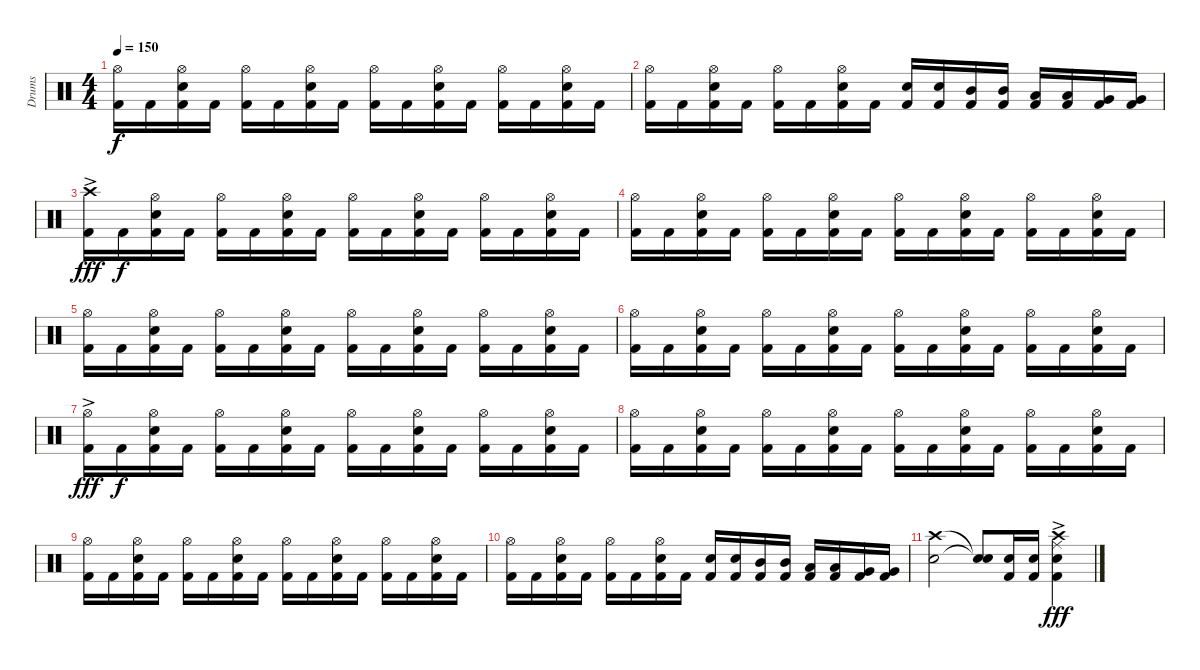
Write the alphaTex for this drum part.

\track ("Drums" "Drums") {instrument percussion}
\staff {score}
\articulation defaults
\ts (4 4)
\tempo 150
\clef neutral
\ks aminor
("Kick (hit) 2" "Hi-Hat (open)").16{dy f} "Kick (hit) 2".16 ("Kick (hit) 2" "Electric Snare (hit)" "Hi-Hat (open)").16 "Kick (hit) 2".16 ("Kick (hit) 2" "Hi-Hat (open)").16 "Kick (hit) 2".16 ("Kick (hit) 2" "Electric Snare (hit)" "Hi-Hat (open)").16 "Kick (hit) 2".16 ("Kick (hit) 2" "Hi-Hat (open)").16 "Kick (hit) 2".16 ("Kick (hit) 2" "Electric Snare (hit)" "Hi-Hat (open)").16 "Kick (hit) 2".16 ("Kick (hit) 2" "Hi-Hat (open)").16 "Kick (hit) 2".16 ("Kick (hit) 2" "Electric Snare (hit)" "Hi-Hat (open)").16 "Kick (hit) 2".16 |
("Hi-Hat (open)" "Kick (hit) 2").16 "Kick (hit) 2".16 ("Hi-Hat (open)" "Electric Snare (hit)" "Kick (hit) 2").16 "Kick (hit) 2".16 ("Hi-Hat (open)" "Kick (hit) 2").16 "Kick (hit) 2".16 ("Hi-Hat (open)" "Electric Snare (hit)" "Kick (hit) 2").16 "Kick (hit) 2".16 ("Electric Snare (hit)" "Kick (hit) 2").16 ("Electric Snare (hit)" "Kick (hit) 2").16 ("Mid Tom (hit)" "Kick (hit) 2").16 ("Mid Tom (hit)" "Kick (hit) 2").16 ("Low Tom (hit)" "Kick (hit) 2").16 ("Low Tom (hit)" "Kick (hit) 2").16 ("Very Low Tom (hit)" "Kick (hit) 2").16 ("Very Low Tom (hit)" "Kick (hit) 2").16 |
("Kick (hit) 2"{ac} "Crash high (hit)"{ac}).16{dy fff} "Kick (hit) 2".16{dy f} ("Kick (hit) 2" "Electric Snare (hit)" "Hi-Hat (open)").16 "Kick (hit) 2".16 ("Kick (hit) 2" "Hi-Hat (open)").16 "Kick (hit) 2".16 ("Kick (hit) 2" "Electric Snare (hit)" "Hi-Hat (open)").16 "Kick (hit) 2".16 ("Kick (hit) 2" "Hi-Hat (open)").16 "Kick (hit) 2".16 ("Kick (hit) 2" "Electric Snare (hit)" "Hi-Hat (open)").16 "Kick (hit) 2".16 ("Kick (hit) 2" "Hi-Hat (open)").16 "Kick (hit) 2".16 ("Kick (hit) 2" "Electric Snare (hit)" "Hi-Hat (open)").16 "Kick (hit) 2".16 |
("Kick (hit) 2" "Hi-Hat (open)").16 "Kick (hit) 2".16 ("Kick (hit) 2" "Electric Snare (hit)" "Hi-Hat (open)").16 "Kick (hit) 2".16 ("Kick (hit) 2" "Hi-Hat (open)").16 "Kick (hit) 2".16 ("Kick (hit) 2" "Electric Snare (hit)" "Hi-Hat (open)").16 "Kick (hit) 2".16 ("Kick (hit) 2" "Hi-Hat (open)").16 "Kick (hit) 2".16 ("Kick (hit) 2" "Electric Snare (hit)" "Hi-Hat (open)").16 "Kick (hit) 2".16 ("Kick (hit) 2" "Hi-Hat (open)").16 "Kick (hit) 2".16 ("Kick (hit) 2" "Electric Snare (hit)" "Hi-Hat (open)").16 "Kick (hit) 2".16 |
("Kick (hit) 2" "Hi-Hat (open)").16 "Kick (hit) 2".16 ("Kick (hit) 2" "Electric Snare (hit)" "Hi-Hat (open)").16 "Kick (hit) 2".16 ("Kick (hit) 2" "Hi-Hat (open)").16 "Kick (hit) 2".16 ("Kick (hit) 2" "Electric Snare (hit)" "Hi-Hat (open)").16 "Kick (hit) 2".16 ("Kick (hit) 2" "Hi-Hat (open)").16 "Kick (hit) 2".16 ("Kick (hit) 2" "Electric Snare (hit)" "Hi-Hat (open)").16 "Kick (hit) 2".16 ("Kick (hit) 2" "Hi-Hat (open)").16 "Kick (hit) 2".16 ("Kick (hit) 2" "Electric Snare (hit)" "Hi-Hat (open)").16 "Kick (hit) 2".16 |
("Kick (hit) 2" "Hi-Hat (open)").16 "Kick (hit) 2".16 ("Kick (hit) 2" "Electric Snare (hit)" "Hi-Hat (open)").16 "Kick (hit) 2".16 ("Kick (hit) 2" "Hi-Hat (open)").16 "Kick (hit) 2".16 ("Kick (hit) 2" "Electric Snare (hit)" "Hi-Hat (open)").16 "Kick (hit) 2".16 ("Kick (hit) 2" "Hi-Hat (open)").16 "Kick (hit) 2".16 ("Kick (hit) 2" "Electric Snare (hit)" "Hi-Hat (open)").16 "Kick (hit) 2".16 ("Kick (hit) 2" "Hi-Hat (open)").16 "Kick (hit) 2".16 ("Kick (hit) 2" "Electric Snare (hit)" "Hi-Hat (open)").16 "Kick (hit) 2".16 |
("Kick (hit) 2"{ac} "Hi-Hat (open)").16{dy fff} "Kick (hit) 2".16{dy f} ("Kick (hit) 2" "Electric Snare (hit)" "Hi-Hat (open)").16 "Kick (hit) 2".16 ("Kick (hit) 2" "Hi-Hat (open)").16 "Kick (hit) 2".16 ("Kick (hit) 2" "Electric Snare (hit)" "Hi-Hat (open)").16 "Kick (hit) 2".16 ("Kick (hit) 2" "Hi-Hat (open)").16 "Kick (hit) 2".16 ("Kick (hit) 2" "Electric Snare (hit)" "Hi-Hat (open)").16 "Kick (hit) 2".16 ("Kick (hit) 2" "Hi-Hat (open)").16 "Kick (hit) 2".16 ("Kick (hit) 2" "Electric Snare (hit)" "Hi-Hat (open)").16 "Kick (hit) 2".16 |
("Kick (hit) 2" "Hi-Hat (open)").16 "Kick (hit) 2".16 ("Kick (hit) 2" "Electric Snare (hit)" "Hi-Hat (open)").16 "Kick (hit) 2".16 ("Kick (hit) 2" "Hi-Hat (open)").16 "Kick (hit) 2".16 ("Kick (hit) 2" "Electric Snare (hit)" "Hi-Hat (open)").16 "Kick (hit) 2".16 ("Kick (hit) 2" "Hi-Hat (open)").16 "Kick (hit) 2".16 ("Kick (hit) 2" "Electric Snare (hit)" "Hi-Hat (open)").16 "Kick (hit) 2".16 ("Kick (hit) 2" "Hi-Hat (open)").16 "Kick (hit) 2".16 ("Kick (hit) 2" "Electric Snare (hit)" "Hi-Hat (open)").16 "Kick (hit) 2".16 |
("Kick (hit) 2" "Hi-Hat (open)").16 "Kick (hit) 2".16 ("Kick (hit) 2" "Electric Snare (hit)" "Hi-Hat (open)").16 "Kick (hit) 2".16 ("Kick (hit) 2" "Hi-Hat (open)").16 "Kick (hit) 2".16 ("Kick (hit) 2" "Electric Snare (hit)" "Hi-Hat (open)").16 "Kick (hit) 2".16 ("Kick (hit) 2" "Hi-Hat (open)").16 "Kick (hit) 2".16 ("Kick (hit) 2" "Electric Snare (hit)" "Hi-Hat (open)").16 "Kick (hit) 2".16 ("Kick (hit) 2" "Hi-Hat (open)").16 "Kick (hit) 2".16 ("Kick (hit) 2" "Electric Snare (hit)" "Hi-Hat (open)").16 "Kick (hit) 2".16 |
("Hi-Hat (open)" "Kick (hit) 2").16 "Kick (hit) 2".16 ("Hi-Hat (open)" "Electric Snare (hit)" "Kick (hit) 2").16 "Kick (hit) 2".16 ("Hi-Hat (open)" "Kick (hit) 2").16 "Kick (hit) 2".16 ("Hi-Hat (open)" "Electric Snare (hit)" "Kick (hit) 2").16 "Kick (hit) 2".16 ("Electric Snare (hit)" "Kick (hit) 2").16 ("Electric Snare (hit)" "Kick (hit) 2").16 ("Mid Tom (hit)" "Kick (hit) 2").16 ("Mid Tom (hit)" "Kick (hit) 2").16 ("Low Tom (hit)" "Kick (hit) 2").16 ("Low Tom (hit)" "Kick (hit) 2").16 ("Very Low Tom (hit)" "Kick (hit) 2").16 ("Very Low Tom (hit)" "Kick (hit) 2").16 |
("Electric Snare (hit)" "Crash high (hit)").2 ("Snare (hit)"{t} "Snare (hit)"{t}).8 ("Electric Snare (hit)" "Kick (hit) 2").16 ("Electric Snare (hit)" "Kick (hit) 2").16 ("Crash high (hit)"{ac} "Ride (middle)"{ac} "Electric Snare (hit)" "Kick (hit) 2").4{dy fff}
